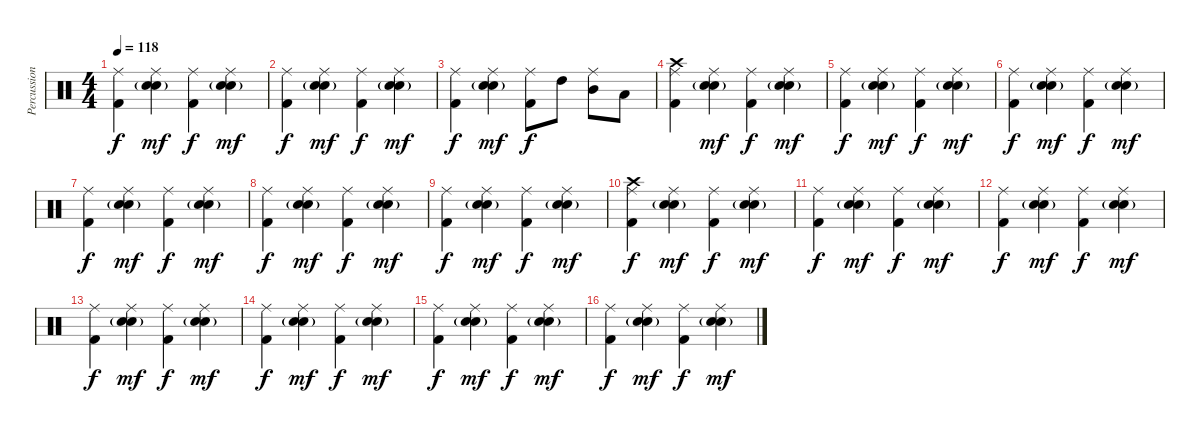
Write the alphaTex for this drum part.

\track ("Percussion" "Percussion") {instrument percussion}
\staff {score}
\articulation defaults
\ts (4 4)
\tempo 118
\clef neutral
\ks c
("Ride (middle)" "Kick (hit) 2").4{dy f} ("Ride (middle)" "Electric Snare (hit)" "Snare (hit) 2"{g}).4{dy mf} ("Ride (middle)" "Kick (hit) 2").4{dy f} ("Ride (middle)" "Electric Snare (hit)" "Snare (hit) 2"{g}).4{dy mf} |
("Ride (middle)" "Kick (hit) 2").4{dy f} ("Ride (middle)" "Electric Snare (hit)" "Snare (hit) 2"{g}).4{dy mf} ("Ride (middle)" "Kick (hit) 2").4{dy f} ("Ride (middle)" "Electric Snare (hit)" "Snare (hit) 2"{g}).4{dy mf} |
("Ride (middle)" "Kick (hit) 2").4{dy f} ("Ride (middle)" "Electric Snare (hit)" "Snare (hit) 2"{g}).4{dy mf} ("Ride (middle)" "Kick (hit) 2").8{dy f} "High Tom (hit)".8 ("Ride (middle)" "Mid Tom (hit)").8 "Low Tom (hit)".8 |
("Crash high (hit)" "Ride (middle)" "Kick (hit) 2").4 ("Ride (middle)" "Electric Snare (hit)" "Snare (hit) 2"{g}).4{dy mf} ("Ride (middle)" "Kick (hit) 2").4{dy f} ("Ride (middle)" "Electric Snare (hit)" "Snare (hit) 2"{g}).4{dy mf} |
("Ride (middle)" "Kick (hit) 2").4{dy f} ("Ride (middle)" "Electric Snare (hit)" "Snare (hit) 2"{g}).4{dy mf} ("Ride (middle)" "Kick (hit) 2").4{dy f} ("Ride (middle)" "Electric Snare (hit)" "Snare (hit) 2"{g}).4{dy mf} |
("Ride (middle)" "Kick (hit) 2").4{dy f} ("Ride (middle)" "Electric Snare (hit)" "Snare (hit) 2"{g}).4{dy mf} ("Ride (middle)" "Kick (hit) 2").4{dy f} ("Ride (middle)" "Electric Snare (hit)" "Snare (hit) 2"{g}).4{dy mf} |
("Ride (middle)" "Kick (hit) 2").4{dy f} ("Ride (middle)" "Electric Snare (hit)" "Snare (hit) 2"{g}).4{dy mf} ("Ride (middle)" "Kick (hit) 2").4{dy f} ("Ride (middle)" "Electric Snare (hit)" "Snare (hit) 2"{g}).4{dy mf} |
("Ride (middle)" "Kick (hit) 2").4{dy f} ("Ride (middle)" "Electric Snare (hit)" "Snare (hit) 2"{g}).4{dy mf} ("Ride (middle)" "Kick (hit) 2").4{dy f} ("Ride (middle)" "Electric Snare (hit)" "Snare (hit) 2"{g}).4{dy mf} |
("Ride (middle)" "Kick (hit) 2").4{dy f} ("Ride (middle)" "Electric Snare (hit)" "Snare (hit) 2"{g}).4{dy mf} ("Ride (middle)" "Kick (hit) 2").4{dy f} ("Ride (middle)" "Electric Snare (hit)" "Snare (hit) 2"{g}).4{dy mf} |
("Crash high (hit)" "Ride (middle)" "Kick (hit) 2").4{dy f} ("Ride (middle)" "Electric Snare (hit)" "Snare (hit) 2"{g}).4{dy mf} ("Ride (middle)" "Kick (hit) 2").4{dy f} ("Ride (middle)" "Electric Snare (hit)" "Snare (hit) 2"{g}).4{dy mf} |
("Ride (middle)" "Kick (hit) 2").4{dy f} ("Ride (middle)" "Electric Snare (hit)" "Snare (hit) 2"{g}).4{dy mf} ("Ride (middle)" "Kick (hit) 2").4{dy f} ("Ride (middle)" "Electric Snare (hit)" "Snare (hit) 2"{g}).4{dy mf} |
("Ride (middle)" "Kick (hit) 2").4{dy f} ("Ride (middle)" "Electric Snare (hit)" "Snare (hit) 2"{g}).4{dy mf} ("Ride (middle)" "Kick (hit) 2").4{dy f} ("Ride (middle)" "Electric Snare (hit)" "Snare (hit) 2"{g}).4{dy mf} |
("Ride (middle)" "Kick (hit) 2").4{dy f} ("Ride (middle)" "Electric Snare (hit)" "Snare (hit) 2"{g}).4{dy mf} ("Ride (middle)" "Kick (hit) 2").4{dy f} ("Ride (middle)" "Electric Snare (hit)" "Snare (hit) 2"{g}).4{dy mf} |
("Ride (middle)" "Kick (hit) 2").4{dy f} ("Ride (middle)" "Electric Snare (hit)" "Snare (hit) 2"{g}).4{dy mf} ("Ride (middle)" "Kick (hit) 2").4{dy f} ("Ride (middle)" "Electric Snare (hit)" "Snare (hit) 2"{g}).4{dy mf} |
("Ride (middle)" "Kick (hit) 2").4{dy f} ("Ride (middle)" "Electric Snare (hit)" "Snare (hit) 2"{g}).4{dy mf} ("Ride (middle)" "Kick (hit) 2").4{dy f} ("Ride (middle)" "Electric Snare (hit)" "Snare (hit) 2"{g}).4{dy mf} |
("Ride (middle)" "Kick (hit) 2").4{dy f} ("Ride (middle)" "Electric Snare (hit)" "Snare (hit) 2"{g}).4{dy mf} ("Ride (middle)" "Kick (hit) 2").4{dy f} ("Ride (middle)" "Electric Snare (hit)" "Snare (hit) 2"{g}).4{dy mf}
